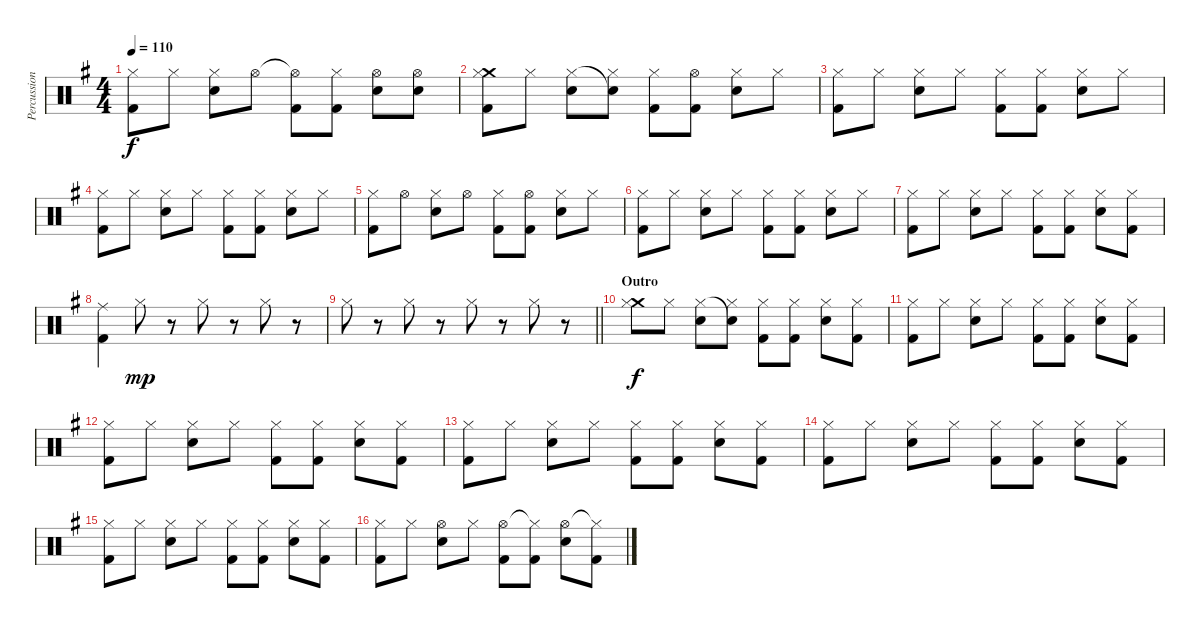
\track ("Percussion" "Percussion") {instrument percussion}
\staff {score}
\articulation defaults
\ts (4 4)
\tempo 110
\clef neutral
\ks g
("Hi-Hat (closed)" "Kick (hit) 2").8{dy f} "Hi-Hat (closed)".8 ("Hi-Hat (closed)" "Electric Snare (hit)").8 "Hi-Hat (open)".8 ("Hi-Hat (open)"{t} "Kick (hit) 2").8 ("Hi-Hat (closed)" "Kick (hit) 2").8 ("Hi-Hat (open)" "Electric Snare (hit)").8 ("Hi-Hat (open)" "Electric Snare (hit)").8 |
("Crash medium (hit)" "Hi-Hat (closed)" "Kick (hit) 2").8 "Hi-Hat (closed)".8 ("Hi-Hat (closed)" "Electric Snare (hit)").8 ("Snare (hit)"{t} "Hi-Hat (closed)").8 ("Hi-Hat (closed)" "Kick (hit) 2").8 ("Hi-Hat (open)" "Kick (hit) 2").8 ("Hi-Hat (closed)" "Electric Snare (hit)").8 "Hi-Hat (closed)".8 |
("Hi-Hat (closed)" "Kick (hit) 2").8 "Hi-Hat (closed)".8 ("Hi-Hat (closed)" "Electric Snare (hit)").8 "Hi-Hat (closed)".8 ("Hi-Hat (closed)" "Kick (hit) 2").8 ("Hi-Hat (closed)" "Kick (hit) 2").8 ("Hi-Hat (closed)" "Electric Snare (hit)").8 "Hi-Hat (closed)".8 |
("Hi-Hat (closed)" "Kick (hit) 2").8 "Hi-Hat (closed)".8 ("Hi-Hat (closed)" "Electric Snare (hit)").8 "Hi-Hat (closed)".8 ("Hi-Hat (closed)" "Kick (hit) 2").8 ("Hi-Hat (closed)" "Kick (hit) 2").8 ("Hi-Hat (closed)" "Electric Snare (hit)").8 "Hi-Hat (closed)".8 |
("Hi-Hat (closed)" "Kick (hit) 2").8 "Hi-Hat (open)".8 ("Hi-Hat (closed)" "Electric Snare (hit)").8 "Hi-Hat (open)".8 ("Hi-Hat (closed)" "Kick (hit) 2").8 ("Hi-Hat (open)" "Kick (hit) 2").8 ("Hi-Hat (closed)" "Electric Snare (hit)").8 "Hi-Hat (closed)".8 |
("Hi-Hat (closed)" "Kick (hit) 2").8 "Hi-Hat (closed)".8 ("Hi-Hat (closed)" "Electric Snare (hit)").8 "Hi-Hat (closed)".8 ("Hi-Hat (closed)" "Kick (hit) 2").8 ("Hi-Hat (closed)" "Kick (hit) 2").8 ("Hi-Hat (closed)" "Electric Snare (hit)").8 "Hi-Hat (closed)".8 |
("Hi-Hat (closed)" "Kick (hit) 2").8 "Hi-Hat (closed)".8 ("Hi-Hat (closed)" "Electric Snare (hit)").8 "Hi-Hat (closed)".8 ("Hi-Hat (closed)" "Kick (hit) 2").8 ("Hi-Hat (closed)" "Kick (hit) 2").8 ("Hi-Hat (closed)" "Electric Snare (hit)").8 ("Hi-Hat (closed)" "Kick (hit) 2").8 |
("Ride (middle)" "Kick (hit) 2").4 "Hi-Hat (closed)".8{dy mp} r.8 "Hi-Hat (closed)".8 r.8 "Hi-Hat (closed)".8 r.8 |
\barLineRight lightlight "Hi-Hat (closed)".8
r.8 "Hi-Hat (closed)".8 r.8 "Hi-Hat (closed)".8 r.8 "Hi-Hat (closed)".8 r.8 |
\section ("" "Outro")
("Crash medium (hit)" "Hi-Hat (closed)").8{dy f} "Hi-Hat (closed)".8 ("Hi-Hat (closed)" "Electric Snare (hit)").8 ("Snare (hit)"{t} "Hi-Hat (closed)").8 ("Hi-Hat (closed)" "Kick (hit) 2").8 ("Hi-Hat (closed)" "Kick (hit) 2").8 ("Hi-Hat (closed)" "Electric Snare (hit)").8 ("Hi-Hat (closed)" "Kick (hit) 2").8 |
("Hi-Hat (closed)" "Kick (hit) 2").8 "Hi-Hat (closed)".8 ("Hi-Hat (closed)" "Electric Snare (hit)").8 "Hi-Hat (closed)".8 ("Hi-Hat (closed)" "Kick (hit) 2").8 ("Hi-Hat (closed)" "Kick (hit) 2").8 ("Hi-Hat (closed)" "Electric Snare (hit)").8 ("Hi-Hat (closed)" "Kick (hit) 2").8 |
("Hi-Hat (closed)" "Kick (hit) 2").8 "Hi-Hat (closed)".8 ("Hi-Hat (closed)" "Electric Snare (hit)").8 "Hi-Hat (closed)".8 ("Hi-Hat (closed)" "Kick (hit) 2").8 ("Hi-Hat (closed)" "Kick (hit) 2").8 ("Hi-Hat (closed)" "Electric Snare (hit)").8 ("Hi-Hat (closed)" "Kick (hit) 2").8 |
("Hi-Hat (closed)" "Kick (hit) 2").8 "Hi-Hat (closed)".8 ("Hi-Hat (closed)" "Electric Snare (hit)").8 "Hi-Hat (closed)".8 ("Hi-Hat (closed)" "Kick (hit) 2").8 ("Hi-Hat (closed)" "Kick (hit) 2").8 ("Hi-Hat (closed)" "Electric Snare (hit)").8 ("Hi-Hat (closed)" "Kick (hit) 2").8 |
("Hi-Hat (closed)" "Kick (hit) 2").8 "Hi-Hat (closed)".8 ("Hi-Hat (closed)" "Electric Snare (hit)").8 "Hi-Hat (closed)".8 ("Hi-Hat (closed)" "Kick (hit) 2").8 ("Hi-Hat (closed)" "Kick (hit) 2").8 ("Hi-Hat (closed)" "Electric Snare (hit)").8 ("Hi-Hat (closed)" "Kick (hit) 2").8 |
("Hi-Hat (closed)" "Kick (hit) 2").8 "Hi-Hat (closed)".8 ("Hi-Hat (closed)" "Electric Snare (hit)").8 "Hi-Hat (closed)".8 ("Hi-Hat (closed)" "Kick (hit) 2").8 ("Hi-Hat (closed)" "Kick (hit) 2").8 ("Hi-Hat (closed)" "Electric Snare (hit)").8 ("Hi-Hat (closed)" "Kick (hit) 2").8 |
("Hi-Hat (closed)" "Kick (hit) 2").8 "Hi-Hat (closed)".8 ("Hi-Hat (open)" "Electric Snare (hit)").8 "Hi-Hat (closed)".8 ("Hi-Hat (open)" "Kick (hit) 2").8 ("Hi-Hat (closed)"{t} "Kick (hit) 2").8 ("Hi-Hat (open)" "Electric Snare (hit)").8 ("Hi-Hat (closed)"{t} "Kick (hit) 2").8
